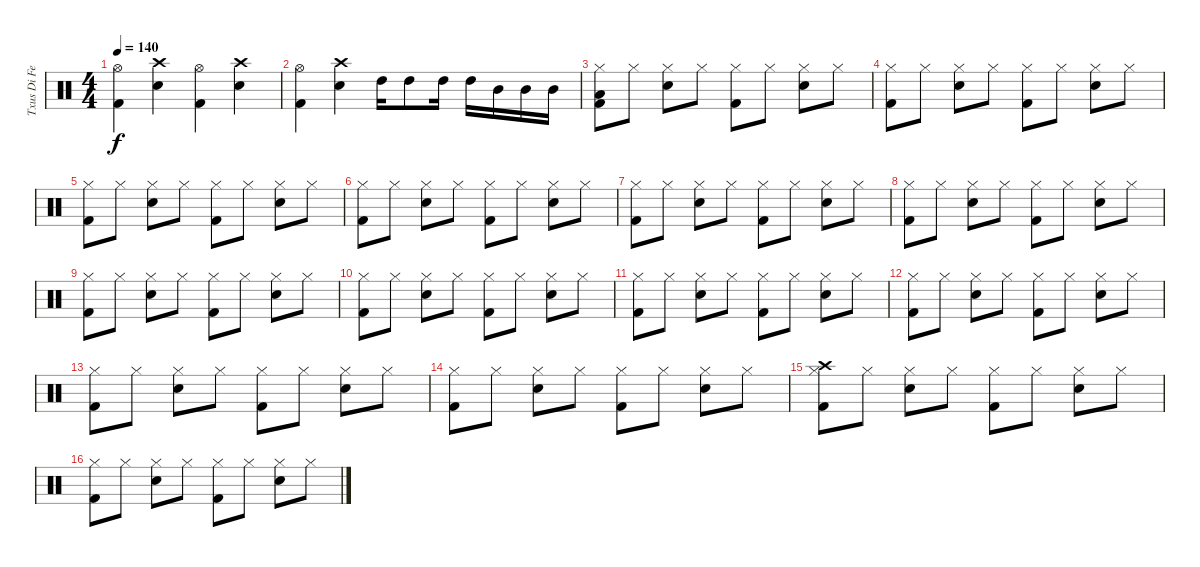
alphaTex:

\track ("Txus Di Fellatio" "Txus Di Fe") {instrument percussion}
\staff {score}
\articulation defaults
\ts (4 4)
\tempo 140
\clef neutral
\ks c
("Hi-Hat (open)" "Kick (hit) 2").4{dy f} ("Crash high (hit)" "Electric Snare (hit)").4 ("Hi-Hat (open)" "Kick (hit) 2").4 ("Crash high (hit)" "Electric Snare (hit)").4 |
("Hi-Hat (open)" "Kick (hit) 2").4 ("Crash high (hit)" "Electric Snare (hit)").4 "High Tom (hit)".16 "High Tom (hit)".8 "High Tom (hit)".16 "High Tom (hit)".16 "Mid Tom (hit)".16 "Mid Tom (hit)".16 "Mid Tom (hit)".16 |
("Hi-Hat (closed)" "Low Tom (hit)" "Kick (hit) 2").8 "Hi-Hat (closed)".8 ("Hi-Hat (closed)" "Electric Snare (hit)").8 "Hi-Hat (closed)".8 ("Hi-Hat (closed)" "Kick (hit) 2").8 "Hi-Hat (closed)".8 ("Hi-Hat (closed)" "Electric Snare (hit)").8 "Hi-Hat (closed)".8 |
("Hi-Hat (closed)" "Kick (hit) 2").8 "Hi-Hat (closed)".8 ("Hi-Hat (closed)" "Electric Snare (hit)").8 "Hi-Hat (closed)".8 ("Hi-Hat (closed)" "Kick (hit) 2").8 "Hi-Hat (closed)".8 ("Hi-Hat (closed)" "Electric Snare (hit)").8 "Hi-Hat (closed)".8 |
("Hi-Hat (closed)" "Kick (hit) 2").8 "Hi-Hat (closed)".8 ("Hi-Hat (closed)" "Electric Snare (hit)").8 "Hi-Hat (closed)".8 ("Hi-Hat (closed)" "Kick (hit) 2").8 "Hi-Hat (closed)".8 ("Hi-Hat (closed)" "Electric Snare (hit)").8 "Hi-Hat (closed)".8 |
("Hi-Hat (closed)" "Kick (hit) 2").8 "Hi-Hat (closed)".8 ("Hi-Hat (closed)" "Electric Snare (hit)").8 "Hi-Hat (closed)".8 ("Hi-Hat (closed)" "Kick (hit) 2").8 "Hi-Hat (closed)".8 ("Hi-Hat (closed)" "Electric Snare (hit)").8 "Hi-Hat (closed)".8 |
("Hi-Hat (closed)" "Kick (hit) 2").8 "Hi-Hat (closed)".8 ("Hi-Hat (closed)" "Electric Snare (hit)").8 "Hi-Hat (closed)".8 ("Hi-Hat (closed)" "Kick (hit) 2").8 "Hi-Hat (closed)".8 ("Hi-Hat (closed)" "Electric Snare (hit)").8 "Hi-Hat (closed)".8 |
("Hi-Hat (closed)" "Kick (hit) 2").8 "Hi-Hat (closed)".8 ("Hi-Hat (closed)" "Electric Snare (hit)").8 "Hi-Hat (closed)".8 ("Hi-Hat (closed)" "Kick (hit) 2").8 "Hi-Hat (closed)".8 ("Hi-Hat (closed)" "Electric Snare (hit)").8 "Hi-Hat (closed)".8 |
("Hi-Hat (closed)" "Kick (hit) 2").8 "Hi-Hat (closed)".8 ("Hi-Hat (closed)" "Electric Snare (hit)").8 "Hi-Hat (closed)".8 ("Hi-Hat (closed)" "Kick (hit) 2").8 "Hi-Hat (closed)".8 ("Hi-Hat (closed)" "Electric Snare (hit)").8 "Hi-Hat (closed)".8 |
("Hi-Hat (closed)" "Kick (hit) 2").8 "Hi-Hat (closed)".8 ("Hi-Hat (closed)" "Electric Snare (hit)").8 "Hi-Hat (closed)".8 ("Hi-Hat (closed)" "Kick (hit) 2").8 "Hi-Hat (closed)".8 ("Hi-Hat (closed)" "Electric Snare (hit)").8 "Hi-Hat (closed)".8 |
("Hi-Hat (closed)" "Kick (hit) 2").8 "Hi-Hat (closed)".8 ("Hi-Hat (closed)" "Electric Snare (hit)").8 "Hi-Hat (closed)".8 ("Hi-Hat (closed)" "Kick (hit) 2").8 "Hi-Hat (closed)".8 ("Hi-Hat (closed)" "Electric Snare (hit)").8 "Hi-Hat (closed)".8 |
("Hi-Hat (closed)" "Kick (hit) 2").8 "Hi-Hat (closed)".8 ("Hi-Hat (closed)" "Electric Snare (hit)").8 "Hi-Hat (closed)".8 ("Hi-Hat (closed)" "Kick (hit) 2").8 "Hi-Hat (closed)".8 ("Hi-Hat (closed)" "Electric Snare (hit)").8 "Hi-Hat (closed)".8 |
("Hi-Hat (closed)" "Kick (hit) 2").8 "Hi-Hat (closed)".8 ("Hi-Hat (closed)" "Electric Snare (hit)").8 "Hi-Hat (closed)".8 ("Hi-Hat (closed)" "Kick (hit) 2").8 "Hi-Hat (closed)".8 ("Hi-Hat (closed)" "Electric Snare (hit)").8 "Hi-Hat (closed)".8 |
("Hi-Hat (closed)" "Kick (hit) 2").8 "Hi-Hat (closed)".8 ("Hi-Hat (closed)" "Electric Snare (hit)").8 "Hi-Hat (closed)".8 ("Hi-Hat (closed)" "Kick (hit) 2").8 "Hi-Hat (closed)".8 ("Hi-Hat (closed)" "Electric Snare (hit)").8 "Hi-Hat (closed)".8 |
("Hi-Hat (closed)" "Crash high (hit)" "Kick (hit) 2").8 "Hi-Hat (closed)".8 ("Hi-Hat (closed)" "Electric Snare (hit)").8 "Hi-Hat (closed)".8 ("Hi-Hat (closed)" "Kick (hit) 2").8 "Hi-Hat (closed)".8 ("Hi-Hat (closed)" "Electric Snare (hit)").8 "Hi-Hat (closed)".8 |
("Hi-Hat (closed)" "Kick (hit) 2").8 "Hi-Hat (closed)".8 ("Hi-Hat (closed)" "Electric Snare (hit)").8 "Hi-Hat (closed)".8 ("Hi-Hat (closed)" "Kick (hit) 2").8 "Hi-Hat (closed)".8 ("Hi-Hat (closed)" "Electric Snare (hit)").8 "Hi-Hat (closed)".8
